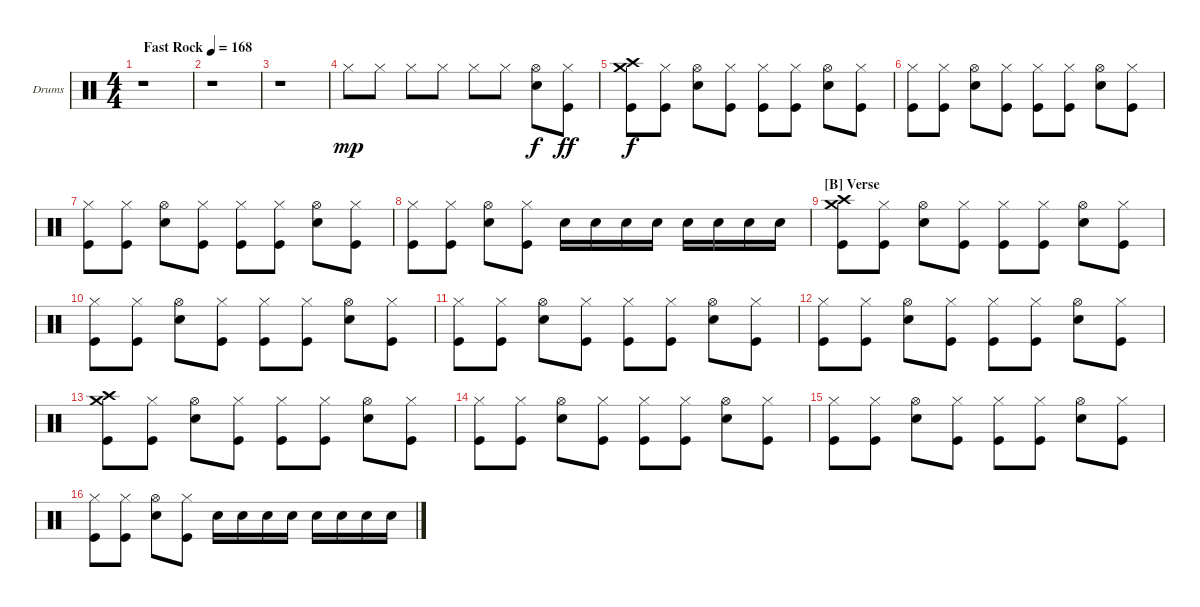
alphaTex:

\bracketExtendMode groupsimilarinstruments
\firstSystemTrackNameOrientation horizontal
\otherSystemsTrackNameOrientation horizontal
\track ("Drumkit" "Drums") {instrument percussion}
\staff {score}
\articulation defaults
\ts (4 4)
\tempo (168 "Fast Rock")
\clef neutral
\scale
0.943253
\ks c
r.1{dy mp} |
\scale
0.943253 r.1 |
\scale
1.05296 r.1 |
\scale
0.973518 "Hi-Hat (closed)".8 "Hi-Hat (closed)".8 "Hi-Hat (closed)".8 "Hi-Hat (closed)".8 "Hi-Hat (closed)".8 "Hi-Hat (closed)".8 ("Hi-Hat (open)" "Snare (hit) 2").8{dy f} ("Hi-Hat (closed)" "Kick (hit)").8{dy ff} |
\scale
0.973518 ("Crash medium (hit)" "Crash high (hit)" "Kick (hit)").8{dy f} ("Hi-Hat (closed)" "Kick (hit)").8 ("Hi-Hat (open)" "Snare (hit) 2").8 ("Hi-Hat (closed)" "Kick (hit)").8 ("Hi-Hat (closed)" "Kick (hit)").8 ("Hi-Hat (closed)" "Kick (hit)").8 ("Hi-Hat (open)" "Snare (hit) 2").8 ("Hi-Hat (closed)" "Kick (hit)").8 |
\scale
1.05296 ("Hi-Hat (closed)" "Kick (hit)").8 ("Hi-Hat (closed)" "Kick (hit)").8 ("Hi-Hat (open)" "Snare (hit) 2").8 ("Hi-Hat (closed)" "Kick (hit)").8 ("Hi-Hat (closed)" "Kick (hit)").8 ("Hi-Hat (closed)" "Kick (hit)").8 ("Hi-Hat (open)" "Snare (hit) 2").8 ("Hi-Hat (closed)" "Kick (hit)").8 |
\scale
0.973518 ("Hi-Hat (closed)" "Kick (hit)").8 ("Hi-Hat (closed)" "Kick (hit)").8 ("Hi-Hat (open)" "Snare (hit) 2").8 ("Hi-Hat (closed)" "Kick (hit)").8 ("Hi-Hat (closed)" "Kick (hit)").8 ("Hi-Hat (closed)" "Kick (hit)").8 ("Hi-Hat (open)" "Snare (hit) 2").8 ("Hi-Hat (closed)" "Kick (hit)").8 |
\scale
0.973518 ("Hi-Hat (closed)" "Kick (hit)").8 ("Hi-Hat (closed)" "Kick (hit)").8 ("Hi-Hat (open)" "Snare (hit) 2").8 ("Hi-Hat (closed)" "Kick (hit)").8 "Snare (hit) 2".16 "Snare (hit) 2".16 "Snare (hit) 2".16 "Snare (hit) 2".16 "Snare (hit) 2".16 "Snare (hit) 2".16 "Snare (hit) 2".16 "Snare (hit) 2".16 |
\section ("B" "Verse")
\scale
1.05296 ("Crash medium (hit)" "Crash high (hit)" "Kick (hit)").8 ("Hi-Hat (closed)" "Kick (hit)").8 ("Hi-Hat (open)" "Snare (hit) 2").8 ("Hi-Hat (closed)" "Kick (hit)").8 ("Hi-Hat (closed)" "Kick (hit)").8 ("Hi-Hat (closed)" "Kick (hit)").8 ("Hi-Hat (open)" "Snare (hit) 2").8 ("Hi-Hat (closed)" "Kick (hit)").8 |
\scale
0.973518 ("Hi-Hat (closed)" "Kick (hit)").8 ("Hi-Hat (closed)" "Kick (hit)").8 ("Hi-Hat (open)" "Snare (hit) 2").8 ("Hi-Hat (closed)" "Kick (hit)").8 ("Hi-Hat (closed)" "Kick (hit)").8 ("Hi-Hat (closed)" "Kick (hit)").8 ("Hi-Hat (open)" "Snare (hit) 2").8 ("Hi-Hat (closed)" "Kick (hit)").8 |
\scale
0.973518 ("Hi-Hat (closed)" "Kick (hit)").8 ("Hi-Hat (closed)" "Kick (hit)").8 ("Hi-Hat (open)" "Snare (hit) 2").8 ("Hi-Hat (closed)" "Kick (hit)").8 ("Hi-Hat (closed)" "Kick (hit)").8 ("Hi-Hat (closed)" "Kick (hit)").8 ("Hi-Hat (open)" "Snare (hit) 2").8 ("Hi-Hat (closed)" "Kick (hit)").8 |
\scale
1.05296 ("Hi-Hat (closed)" "Kick (hit)").8 ("Hi-Hat (closed)" "Kick (hit)").8 ("Hi-Hat (open)" "Snare (hit) 2").8 ("Hi-Hat (closed)" "Kick (hit)").8 ("Hi-Hat (closed)" "Kick (hit)").8 ("Hi-Hat (closed)" "Kick (hit)").8 ("Hi-Hat (open)" "Snare (hit) 2").8 ("Hi-Hat (closed)" "Kick (hit)").8 |
\scale
0.973518 ("Crash medium (hit)" "Crash high (hit)" "Kick (hit)").8 ("Hi-Hat (closed)" "Kick (hit)").8 ("Hi-Hat (open)" "Snare (hit) 2").8 ("Hi-Hat (closed)" "Kick (hit)").8 ("Hi-Hat (closed)" "Kick (hit)").8 ("Hi-Hat (closed)" "Kick (hit)").8 ("Hi-Hat (open)" "Snare (hit) 2").8 ("Hi-Hat (closed)" "Kick (hit)").8 |
\scale
0.973518 ("Hi-Hat (closed)" "Kick (hit)").8 ("Hi-Hat (closed)" "Kick (hit)").8 ("Hi-Hat (open)" "Snare (hit) 2").8 ("Hi-Hat (closed)" "Kick (hit)").8 ("Hi-Hat (closed)" "Kick (hit)").8 ("Hi-Hat (closed)" "Kick (hit)").8 ("Hi-Hat (open)" "Snare (hit) 2").8 ("Hi-Hat (closed)" "Kick (hit)").8 |
\scale
1.05296 ("Hi-Hat (closed)" "Kick (hit)").8 ("Hi-Hat (closed)" "Kick (hit)").8 ("Hi-Hat (open)" "Snare (hit) 2").8 ("Hi-Hat (closed)" "Kick (hit)").8 ("Hi-Hat (closed)" "Kick (hit)").8 ("Hi-Hat (closed)" "Kick (hit)").8 ("Hi-Hat (open)" "Snare (hit) 2").8 ("Hi-Hat (closed)" "Kick (hit)").8 |
\scale
0.973518 ("Hi-Hat (closed)" "Kick (hit)").8 ("Hi-Hat (closed)" "Kick (hit)").8 ("Hi-Hat (open)" "Snare (hit) 2").8 ("Hi-Hat (closed)" "Kick (hit)").8 "Snare (hit) 2".16 "Snare (hit) 2".16 "Snare (hit) 2".16 "Snare (hit) 2".16 "Snare (hit) 2".16 "Snare (hit) 2".16 "Snare (hit) 2".16 "Snare (hit) 2".16
